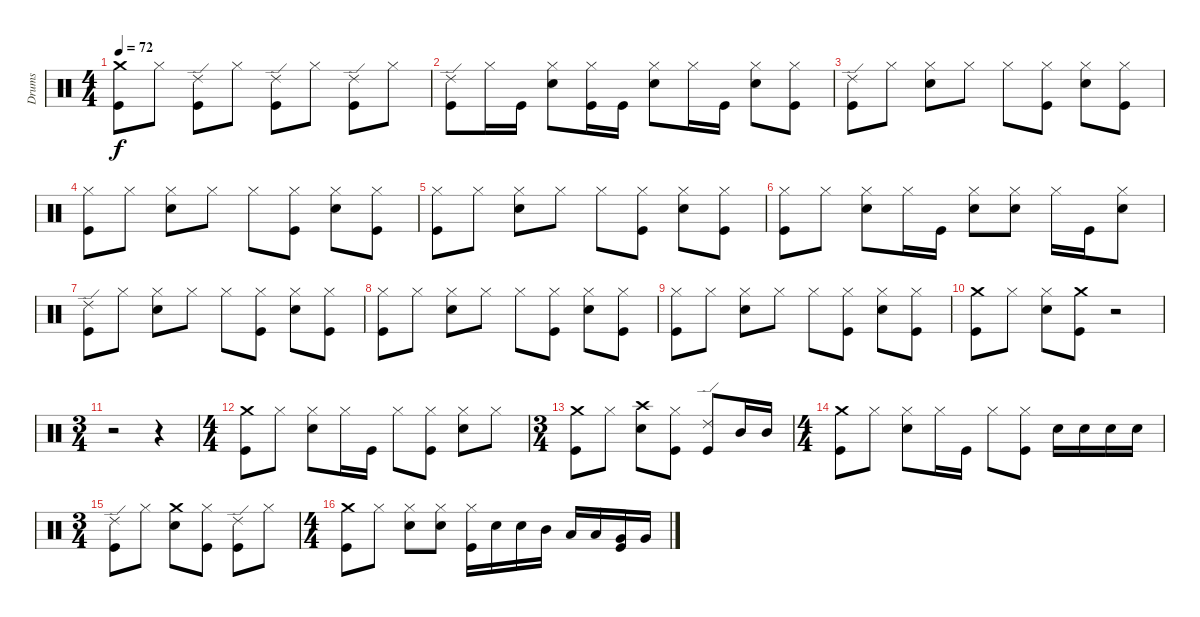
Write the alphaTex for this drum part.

\track ("Drums" "Drums") {instrument percussion}
\staff {score}
\articulation defaults
\ts (4 4)
\tempo 72
\clef neutral
\ks c
("Kick (hit)" "Crash medium (hit)").8{dy f} "Hi-Hat (closed)".8 ("Kick (hit)" "Ride (edge) 2").8 "Hi-Hat (closed)".8 ("Kick (hit)" "Ride (edge) 2").8 "Hi-Hat (closed)".8 ("Kick (hit)" "Ride (edge) 2").8 "Hi-Hat (closed)".8 |
("Kick (hit)" "Ride (edge) 2").8 "Hi-Hat (closed)".16 "Kick (hit)".16 ("Electric Snare (hit)" "Hi-Hat (closed)").8 ("Kick (hit)" "Hi-Hat (closed)").16 "Kick (hit)".16 ("Electric Snare (hit)" "Hi-Hat (closed)").8 "Hi-Hat (closed)".16 "Kick (hit)".16 ("Electric Snare (hit)" "Hi-Hat (closed)").8 ("Kick (hit)" "Hi-Hat (closed)").8 |
("Kick (hit)" "Ride (edge) 2").8 "Hi-Hat (closed)".8 ("Electric Snare (hit)" "Hi-Hat (closed)").8 "Hi-Hat (closed)".8 "Hi-Hat (closed)".8 ("Kick (hit)" "Hi-Hat (closed)").8 ("Electric Snare (hit)" "Hi-Hat (closed)").8 ("Kick (hit)" "Hi-Hat (closed)").8 |
("Kick (hit)" "Hi-Hat (closed)").8 "Hi-Hat (closed)".8 ("Electric Snare (hit)" "Hi-Hat (closed)").8 "Hi-Hat (closed)".8 "Hi-Hat (closed)".8 ("Kick (hit)" "Hi-Hat (closed)").8 ("Electric Snare (hit)" "Hi-Hat (closed)").8 ("Kick (hit)" "Hi-Hat (closed)").8 |
("Kick (hit)" "Hi-Hat (closed)").8 "Hi-Hat (closed)".8 ("Electric Snare (hit)" "Hi-Hat (closed)").8 "Hi-Hat (closed)".8 "Hi-Hat (closed)".8 ("Kick (hit)" "Hi-Hat (closed)").8 ("Electric Snare (hit)" "Hi-Hat (closed)").8 ("Kick (hit)" "Hi-Hat (closed)").8 |
("Kick (hit)" "Hi-Hat (closed)").8 "Hi-Hat (closed)".8 ("Electric Snare (hit)" "Hi-Hat (closed)").8 "Hi-Hat (closed)".16 "Kick (hit)".16 ("Electric Snare (hit)" "Hi-Hat (closed)").8 ("Electric Snare (hit)" "Hi-Hat (closed)").8 "Hi-Hat (closed)".16 "Kick (hit)".16 ("Electric Snare (hit)" "Hi-Hat (closed)").8 |
("Kick (hit)" "Ride (edge) 2").8 "Hi-Hat (closed)".8 ("Electric Snare (hit)" "Hi-Hat (closed)").8 "Hi-Hat (closed)".8 "Hi-Hat (closed)".8 ("Kick (hit)" "Hi-Hat (closed)").8 ("Electric Snare (hit)" "Hi-Hat (closed)").8 ("Kick (hit)" "Hi-Hat (closed)").8 |
("Kick (hit)" "Hi-Hat (closed)").8 "Hi-Hat (closed)".8 ("Electric Snare (hit)" "Hi-Hat (closed)").8 "Hi-Hat (closed)".8 "Hi-Hat (closed)".8 ("Kick (hit)" "Hi-Hat (closed)").8 ("Electric Snare (hit)" "Hi-Hat (closed)").8 ("Kick (hit)" "Hi-Hat (closed)").8 |
("Kick (hit)" "Hi-Hat (closed)").8 "Hi-Hat (closed)".8 ("Electric Snare (hit)" "Hi-Hat (closed)").8 "Hi-Hat (closed)".8 "Hi-Hat (closed)".8 ("Kick (hit)" "Hi-Hat (closed)").8 ("Electric Snare (hit)" "Hi-Hat (closed)").8 ("Kick (hit)" "Hi-Hat (closed)").8 |
("Kick (hit)" "Crash medium (hit)").8 "Hi-Hat (closed)".8 ("Electric Snare (hit)" "Hi-Hat (closed)").8 ("Kick (hit)" "Crash medium (hit)").8 r.2 |
\ts (3 4)
r.2 r.4 |
\ts (4 4)
("Kick (hit)" "Crash medium (hit)").8 "Hi-Hat (closed)".8 ("Electric Snare (hit)" "Hi-Hat (closed)").8 "Hi-Hat (closed)".16 "Kick (hit)".16 "Hi-Hat (closed)".8 ("Kick (hit)" "Hi-Hat (closed)").8 ("Electric Snare (hit)" "Hi-Hat (closed)").8 "Hi-Hat (closed)".8 |
\ts (3 4)
("Kick (hit)" "Crash medium (hit)").8 "Hi-Hat (closed)".8 ("Electric Snare (hit)" "Crash high (hit)").8 ("Kick (hit)" "Hi-Hat (closed)").8 ("Kick (hit)" "Ride (edge) 2").8 "Mid Tom (hit)".16 "Mid Tom (hit)".16 |
\ts (4 4)
("Kick (hit)" "Crash medium (hit)").8 "Hi-Hat (closed)".8 ("Electric Snare (hit)" "Hi-Hat (closed)").8 "Hi-Hat (closed)".16 "Kick (hit)".16 "Hi-Hat (closed)".8 ("Kick (hit)" "Hi-Hat (closed)").8 "Electric Snare (hit)".16 "Electric Snare (hit)".16 "Electric Snare (hit)".16 "Electric Snare (hit)".16 |
\ts (3 4)
("Kick (hit)" "Ride (edge) 2").8 "Hi-Hat (closed)".8 ("Electric Snare (hit)" "Crash medium (hit)").8 ("Kick (hit)" "Hi-Hat (closed)").8 ("Kick (hit)" "Ride (edge) 2").8 "Hi-Hat (closed)".8 |
\ts (4 4)
("Kick (hit)" "Crash medium (hit)").8 "Hi-Hat (closed)".8 ("Electric Snare (hit)" "Hi-Hat (closed)").8 ("Electric Snare (hit)" "Hi-Hat (closed)").8 ("Kick (hit)" "Hi-Hat (closed)").16 "Electric Snare (hit)".16 "Electric Snare (hit)".16 "Mid Tom (hit)".16 "Low Tom (hit)".16 "Low Tom (hit)".16 ("Kick (hit)" "Very Low Tom (hit)").16 "Very Low Tom (hit)".16
